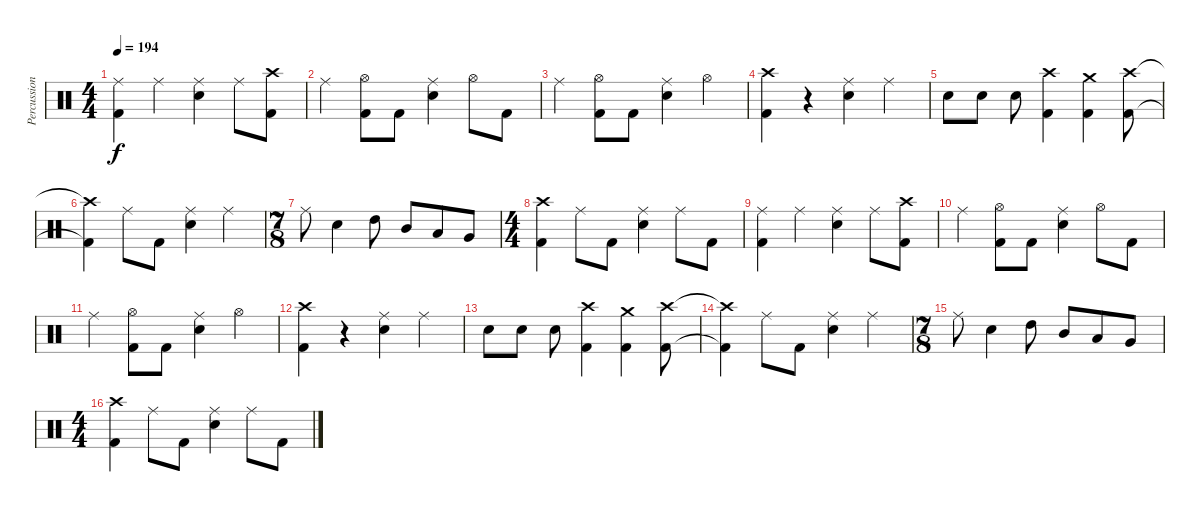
\track ("Percussions" "Percussion") {instrument percussion}
\staff {score}
\articulation defaults
\ts (4 4)
\tempo 194
\clef neutral
\ks c
("Ride (middle)" "Kick (hit) 2").4{dy f} "Ride (middle)".4 ("Ride (middle)" "Electric Snare (hit)").4 "Ride (middle)".8 ("Crash high (hit)" "Kick (hit) 2").8 |
"Ride (middle)".4 ("Hi-Hat (open)" "Kick (hit) 2").8 "Kick (hit) 2".8 ("Ride (middle)" "Electric Snare (hit)").4 "Hi-Hat (open)".8 "Kick (hit) 2".8 |
"Ride (middle)".4 ("Hi-Hat (open)" "Kick (hit) 2").8 "Kick (hit) 2".8 ("Ride (middle)" "Electric Snare (hit)").4 "Hi-Hat (open)".4 |
("Crash high (hit)" "Kick (hit) 2").4 r.4 ("Ride (middle)" "Electric Snare (hit)").4 "Ride (middle)".4 |
"Electric Snare (hit)".8 "Electric Snare (hit)".8 "Electric Snare (hit)".8 ("Crash high (hit)" "Kick (hit) 2").4 ("Crash medium (hit)" "Kick (hit) 2").4 ("Crash high (hit)" "Kick (hit) 2").8 |
("Crash high (hit)"{t} "Kick (hit) 2"{t}).4 "Ride (middle)".8 "Kick (hit) 2".8 ("Ride (middle)" "Electric Snare (hit)").4 "Ride (middle)".4 |
\ts (7 8)
"Ride (middle)".8 "Electric Snare (hit)".4 "High Tom (hit)".8 "Mid Tom (hit)".8 "Low Tom (hit)".8 "Very Low Tom (hit)".8 |
\ts (4 4)
("Crash high (hit)" "Kick (hit) 2").4 "Ride (middle)".8 "Kick (hit) 2".8 ("Ride (middle)" "Electric Snare (hit)").4 "Ride (middle)".8 "Kick (hit) 2".8 |
("Ride (middle)" "Kick (hit) 2").4 "Ride (middle)".4 ("Ride (middle)" "Electric Snare (hit)").4 "Ride (middle)".8 ("Crash high (hit)" "Kick (hit) 2").8 |
"Ride (middle)".4 ("Hi-Hat (open)" "Kick (hit) 2").8 "Kick (hit) 2".8 ("Ride (middle)" "Electric Snare (hit)").4 "Hi-Hat (open)".8 "Kick (hit) 2".8 |
"Ride (middle)".4 ("Hi-Hat (open)" "Kick (hit) 2").8 "Kick (hit) 2".8 ("Ride (middle)" "Electric Snare (hit)").4 "Hi-Hat (open)".4 |
("Crash high (hit)" "Kick (hit) 2").4 r.4 ("Ride (middle)" "Electric Snare (hit)").4 "Ride (middle)".4 |
"Electric Snare (hit)".8 "Electric Snare (hit)".8 "Electric Snare (hit)".8 ("Crash high (hit)" "Kick (hit) 2").4 ("Crash medium (hit)" "Kick (hit) 2").4 ("Crash high (hit)" "Kick (hit) 2").8 |
("Crash high (hit)"{t} "Kick (hit) 2"{t}).4 "Ride (middle)".8 "Kick (hit) 2".8 ("Ride (middle)" "Electric Snare (hit)").4 "Ride (middle)".4 |
\ts (7 8)
"Ride (middle)".8 "Electric Snare (hit)".4 "High Tom (hit)".8 "Mid Tom (hit)".8 "Low Tom (hit)".8 "Very Low Tom (hit)".8 |
\ts (4 4)
("Crash high (hit)" "Kick (hit) 2").4 "Ride (middle)".8 "Kick (hit) 2".8 ("Ride (middle)" "Electric Snare (hit)").4 "Ride (middle)".8 "Kick (hit) 2".8
